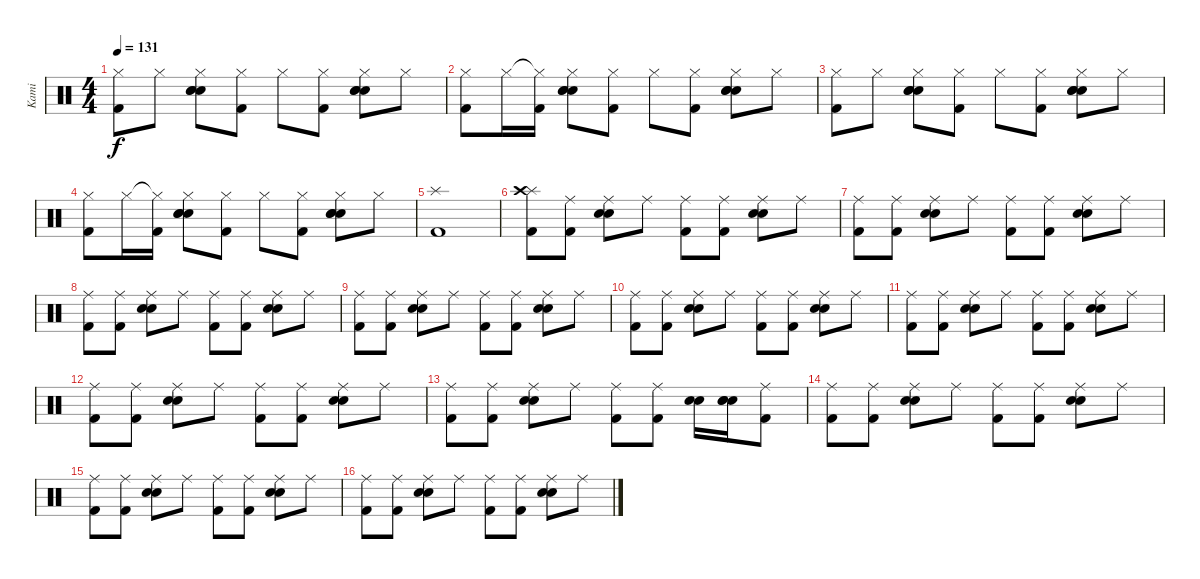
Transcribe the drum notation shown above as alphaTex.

\track ("Kami" "Kami") {instrument percussion}
\staff {score}
\articulation defaults
\ts (4 4)
\tempo 131
\clef neutral
\ks c
("Hi-Hat (closed)" "Kick (hit) 2").8{dy f} "Hi-Hat (closed)".8 ("Electric Snare (hit)" "Hi-Hat (closed)" "Electric Snare (hit)" "Electric Snare (hit)").8 ("Hi-Hat (closed)" "Kick (hit) 2").8 "Hi-Hat (closed)".8 ("Hi-Hat (closed)" "Kick (hit) 2").8 ("Electric Snare (hit)" "Hi-Hat (closed)" "Electric Snare (hit)" "Electric Snare (hit)").8 "Hi-Hat (closed)".8 |
("Hi-Hat (closed)" "Kick (hit) 2").8 "Hi-Hat (closed)".16 ("Hi-Hat (closed)"{t} "Kick (hit) 2").16 ("Electric Snare (hit)" "Hi-Hat (closed)" "Electric Snare (hit)" "Electric Snare (hit)").8 ("Hi-Hat (closed)" "Kick (hit) 2").8 "Hi-Hat (closed)".8 ("Hi-Hat (closed)" "Kick (hit) 2").8 ("Electric Snare (hit)" "Hi-Hat (closed)" "Electric Snare (hit)" "Electric Snare (hit)").8 "Hi-Hat (closed)".8 |
("Hi-Hat (closed)" "Kick (hit) 2").8 "Hi-Hat (closed)".8 ("Electric Snare (hit)" "Hi-Hat (closed)" "Electric Snare (hit)" "Electric Snare (hit)").8 ("Hi-Hat (closed)" "Kick (hit) 2").8 "Hi-Hat (closed)".8 ("Hi-Hat (closed)" "Kick (hit) 2").8 ("Electric Snare (hit)" "Hi-Hat (closed)" "Electric Snare (hit)" "Electric Snare (hit)").8 "Hi-Hat (closed)".8 |
("Hi-Hat (closed)" "Kick (hit) 2").8 "Hi-Hat (closed)".16 ("Hi-Hat (closed)"{t} "Kick (hit) 2").16 ("Electric Snare (hit)" "Hi-Hat (closed)" "Electric Snare (hit)" "Electric Snare (hit)").8 ("Hi-Hat (closed)" "Kick (hit) 2").8 "Hi-Hat (closed)".8 ("Hi-Hat (closed)" "Kick (hit) 2").8 ("Electric Snare (hit)" "Hi-Hat (closed)" "Electric Snare (hit)" "Electric Snare (hit)").8 "Hi-Hat (closed)".8 |
("Splash (hit)" "Kick (hit) 2").1 |
("Splash (hit)" "Kick (hit) 2" "Crash high (hit)").8 ("Ride (middle)" "Kick (hit) 2").8 ("Ride (middle)" "Electric Snare (hit)" "Electric Snare (hit)").8 "Ride (middle)".8 ("Ride (middle)" "Kick (hit) 2").8 ("Ride (middle)" "Kick (hit) 2").8 ("Ride (middle)" "Electric Snare (hit)" "Electric Snare (hit)").8 "Ride (middle)".8 |
("Ride (middle)" "Kick (hit) 2").8 ("Ride (middle)" "Kick (hit) 2").8 ("Ride (middle)" "Electric Snare (hit)" "Electric Snare (hit)").8 "Ride (middle)".8 ("Ride (middle)" "Kick (hit) 2").8 ("Ride (middle)" "Kick (hit) 2").8 ("Ride (middle)" "Electric Snare (hit)" "Electric Snare (hit)").8 "Ride (middle)".8 |
("Ride (middle)" "Kick (hit) 2").8 ("Ride (middle)" "Kick (hit) 2").8 ("Ride (middle)" "Electric Snare (hit)" "Electric Snare (hit)").8 "Ride (middle)".8 ("Ride (middle)" "Kick (hit) 2").8 ("Ride (middle)" "Kick (hit) 2").8 ("Ride (middle)" "Electric Snare (hit)" "Electric Snare (hit)").8 "Ride (middle)".8 |
("Ride (middle)" "Kick (hit) 2").8 ("Ride (middle)" "Kick (hit) 2").8 ("Ride (middle)" "Electric Snare (hit)" "Electric Snare (hit)").8 "Ride (middle)".8 ("Ride (middle)" "Kick (hit) 2").8 ("Ride (middle)" "Kick (hit) 2").8 ("Ride (middle)" "Electric Snare (hit)" "Electric Snare (hit)").8 "Ride (middle)".8 |
("Ride (middle)" "Kick (hit) 2").8 ("Ride (middle)" "Kick (hit) 2").8 ("Ride (middle)" "Electric Snare (hit)" "Electric Snare (hit)").8 "Ride (middle)".8 ("Ride (middle)" "Kick (hit) 2").8 ("Ride (middle)" "Kick (hit) 2").8 ("Ride (middle)" "Electric Snare (hit)" "Electric Snare (hit)").8 "Ride (middle)".8 |
("Ride (middle)" "Kick (hit) 2").8 ("Ride (middle)" "Kick (hit) 2").8 ("Ride (middle)" "Electric Snare (hit)" "Electric Snare (hit)").8 "Ride (middle)".8 ("Ride (middle)" "Kick (hit) 2").8 ("Ride (middle)" "Kick (hit) 2").8 ("Ride (middle)" "Electric Snare (hit)" "Electric Snare (hit)").8 "Ride (middle)".8 |
("Ride (middle)" "Kick (hit) 2").8 ("Ride (middle)" "Kick (hit) 2").8 ("Ride (middle)" "Electric Snare (hit)" "Electric Snare (hit)").8 "Ride (middle)".8 ("Ride (middle)" "Kick (hit) 2").8 ("Ride (middle)" "Kick (hit) 2").8 ("Ride (middle)" "Electric Snare (hit)" "Electric Snare (hit)").8 "Ride (middle)".8 |
("Ride (middle)" "Kick (hit) 2").8 ("Ride (middle)" "Kick (hit) 2").8 ("Ride (middle)" "Electric Snare (hit)" "Electric Snare (hit)").8 "Ride (middle)".8 ("Ride (middle)" "Kick (hit) 2").8 ("Ride (middle)" "Kick (hit) 2").8 ("Electric Snare (hit)" "Electric Snare (hit)").16 ("Electric Snare (hit)" "Electric Snare (hit)" "Electric Snare (hit)").16 ("Ride (middle)" "Kick (hit) 2").8 |
("Ride (middle)" "Kick (hit) 2").8 ("Ride (middle)" "Kick (hit) 2").8 ("Ride (middle)" "Electric Snare (hit)" "Electric Snare (hit)").8 "Ride (middle)".8 ("Ride (middle)" "Kick (hit) 2").8 ("Ride (middle)" "Kick (hit) 2").8 ("Ride (middle)" "Electric Snare (hit)" "Electric Snare (hit)").8 "Ride (middle)".8 |
("Ride (middle)" "Kick (hit) 2").8 ("Ride (middle)" "Kick (hit) 2").8 ("Ride (middle)" "Electric Snare (hit)" "Electric Snare (hit)").8 "Ride (middle)".8 ("Ride (middle)" "Kick (hit) 2").8 ("Ride (middle)" "Kick (hit) 2").8 ("Ride (middle)" "Electric Snare (hit)" "Electric Snare (hit)").8 "Ride (middle)".8 |
("Ride (middle)" "Kick (hit) 2").8 ("Ride (middle)" "Kick (hit) 2").8 ("Ride (middle)" "Electric Snare (hit)" "Electric Snare (hit)").8 "Ride (middle)".8 ("Ride (middle)" "Kick (hit) 2").8 ("Ride (middle)" "Kick (hit) 2").8 ("Ride (middle)" "Electric Snare (hit)" "Electric Snare (hit)").8 "Ride (middle)".8
